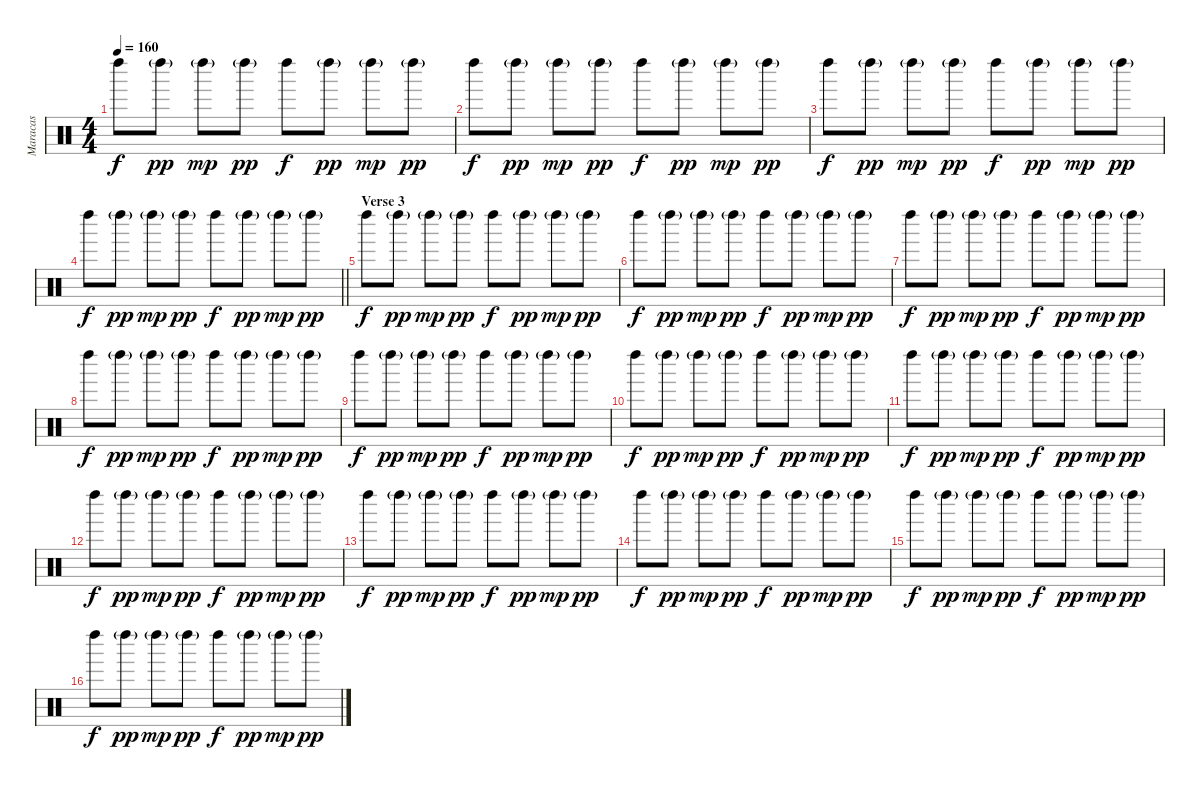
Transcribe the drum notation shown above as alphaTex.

\track ("Maracas" "Maracas") {instrument percussion}
\staff {score}
\articulation defaults
\ts (4 4)
\tempo 160
\clef neutral
\ks c "Left Maraca (hit)".8{dy f} "Left Maraca (hit)"{g}.8{dy pp} "Left Maraca (hit)"{g}.8{dy mp} "Left Maraca (hit)"{g}.8{dy pp} "Left Maraca (hit)".8{dy f} "Left Maraca (hit)"{g}.8{dy pp} "Left Maraca (hit)"{g}.8{dy mp} "Left Maraca (hit)"{g}.8{dy pp}
|
"Left Maraca (hit)".8{dy f} "Left Maraca (hit)"{g}.8{dy pp} "Left Maraca (hit)"{g}.8{dy mp} "Left Maraca (hit)"{g}.8{dy pp} "Left Maraca (hit)".8{dy f} "Left Maraca (hit)"{g}.8{dy pp} "Left Maraca (hit)"{g}.8{dy mp} "Left Maraca (hit)"{g}.8{dy pp} |
"Left Maraca (hit)".8{dy f} "Left Maraca (hit)"{g}.8{dy pp} "Left Maraca (hit)"{g}.8{dy mp} "Left Maraca (hit)"{g}.8{dy pp} "Left Maraca (hit)".8{dy f} "Left Maraca (hit)"{g}.8{dy pp} "Left Maraca (hit)"{g}.8{dy mp} "Left Maraca (hit)"{g}.8{dy pp} |
\barLineRight lightlight "Left Maraca (hit)".8{dy f} "Left Maraca (hit)"{g}.8{dy pp} "Left Maraca (hit)"{g}.8{dy mp} "Left Maraca (hit)"{g}.8{dy pp} "Left Maraca (hit)".8{dy f} "Left Maraca (hit)"{g}.8{dy pp} "Left Maraca (hit)"{g}.8{dy mp} "Left Maraca (hit)"{g}.8{dy pp}
|
\section ("" "Verse 3")
"Left Maraca (hit)".8{dy f} "Left Maraca (hit)"{g}.8{dy pp} "Left Maraca (hit)"{g}.8{dy mp} "Left Maraca (hit)"{g}.8{dy pp} "Left Maraca (hit)".8{dy f} "Left Maraca (hit)"{g}.8{dy pp} "Left Maraca (hit)"{g}.8{dy mp} "Left Maraca (hit)"{g}.8{dy pp} |
"Left Maraca (hit)".8{dy f} "Left Maraca (hit)"{g}.8{dy pp} "Left Maraca (hit)"{g}.8{dy mp} "Left Maraca (hit)"{g}.8{dy pp} "Left Maraca (hit)".8{dy f} "Left Maraca (hit)"{g}.8{dy pp} "Left Maraca (hit)"{g}.8{dy mp} "Left Maraca (hit)"{g}.8{dy pp} |
"Left Maraca (hit)".8{dy f} "Left Maraca (hit)"{g}.8{dy pp} "Left Maraca (hit)"{g}.8{dy mp} "Left Maraca (hit)"{g}.8{dy pp} "Left Maraca (hit)".8{dy f} "Left Maraca (hit)"{g}.8{dy pp} "Left Maraca (hit)"{g}.8{dy mp} "Left Maraca (hit)"{g}.8{dy pp} |
"Left Maraca (hit)".8{dy f} "Left Maraca (hit)"{g}.8{dy pp} "Left Maraca (hit)"{g}.8{dy mp} "Left Maraca (hit)"{g}.8{dy pp} "Left Maraca (hit)".8{dy f} "Left Maraca (hit)"{g}.8{dy pp} "Left Maraca (hit)"{g}.8{dy mp} "Left Maraca (hit)"{g}.8{dy pp} |
"Left Maraca (hit)".8{dy f} "Left Maraca (hit)"{g}.8{dy pp} "Left Maraca (hit)"{g}.8{dy mp} "Left Maraca (hit)"{g}.8{dy pp} "Left Maraca (hit)".8{dy f} "Left Maraca (hit)"{g}.8{dy pp} "Left Maraca (hit)"{g}.8{dy mp} "Left Maraca (hit)"{g}.8{dy pp} |
"Left Maraca (hit)".8{dy f} "Left Maraca (hit)"{g}.8{dy pp} "Left Maraca (hit)"{g}.8{dy mp} "Left Maraca (hit)"{g}.8{dy pp} "Left Maraca (hit)".8{dy f} "Left Maraca (hit)"{g}.8{dy pp} "Left Maraca (hit)"{g}.8{dy mp} "Left Maraca (hit)"{g}.8{dy pp} |
"Left Maraca (hit)".8{dy f} "Left Maraca (hit)"{g}.8{dy pp} "Left Maraca (hit)"{g}.8{dy mp} "Left Maraca (hit)"{g}.8{dy pp} "Left Maraca (hit)".8{dy f} "Left Maraca (hit)"{g}.8{dy pp} "Left Maraca (hit)"{g}.8{dy mp} "Left Maraca (hit)"{g}.8{dy pp} |
"Left Maraca (hit)".8{dy f} "Left Maraca (hit)"{g}.8{dy pp} "Left Maraca (hit)"{g}.8{dy mp} "Left Maraca (hit)"{g}.8{dy pp} "Left Maraca (hit)".8{dy f} "Left Maraca (hit)"{g}.8{dy pp} "Left Maraca (hit)"{g}.8{dy mp} "Left Maraca (hit)"{g}.8{dy pp} |
"Left Maraca (hit)".8{dy f} "Left Maraca (hit)"{g}.8{dy pp} "Left Maraca (hit)"{g}.8{dy mp} "Left Maraca (hit)"{g}.8{dy pp} "Left Maraca (hit)".8{dy f} "Left Maraca (hit)"{g}.8{dy pp} "Left Maraca (hit)"{g}.8{dy mp} "Left Maraca (hit)"{g}.8{dy pp} |
"Left Maraca (hit)".8{dy f} "Left Maraca (hit)"{g}.8{dy pp} "Left Maraca (hit)"{g}.8{dy mp} "Left Maraca (hit)"{g}.8{dy pp} "Left Maraca (hit)".8{dy f} "Left Maraca (hit)"{g}.8{dy pp} "Left Maraca (hit)"{g}.8{dy mp} "Left Maraca (hit)"{g}.8{dy pp} |
"Left Maraca (hit)".8{dy f} "Left Maraca (hit)"{g}.8{dy pp} "Left Maraca (hit)"{g}.8{dy mp} "Left Maraca (hit)"{g}.8{dy pp} "Left Maraca (hit)".8{dy f} "Left Maraca (hit)"{g}.8{dy pp} "Left Maraca (hit)"{g}.8{dy mp} "Left Maraca (hit)"{g}.8{dy pp} |
"Left Maraca (hit)".8{dy f} "Left Maraca (hit)"{g}.8{dy pp} "Left Maraca (hit)"{g}.8{dy mp} "Left Maraca (hit)"{g}.8{dy pp} "Left Maraca (hit)".8{dy f} "Left Maraca (hit)"{g}.8{dy pp} "Left Maraca (hit)"{g}.8{dy mp} "Left Maraca (hit)"{g}.8{dy pp}
